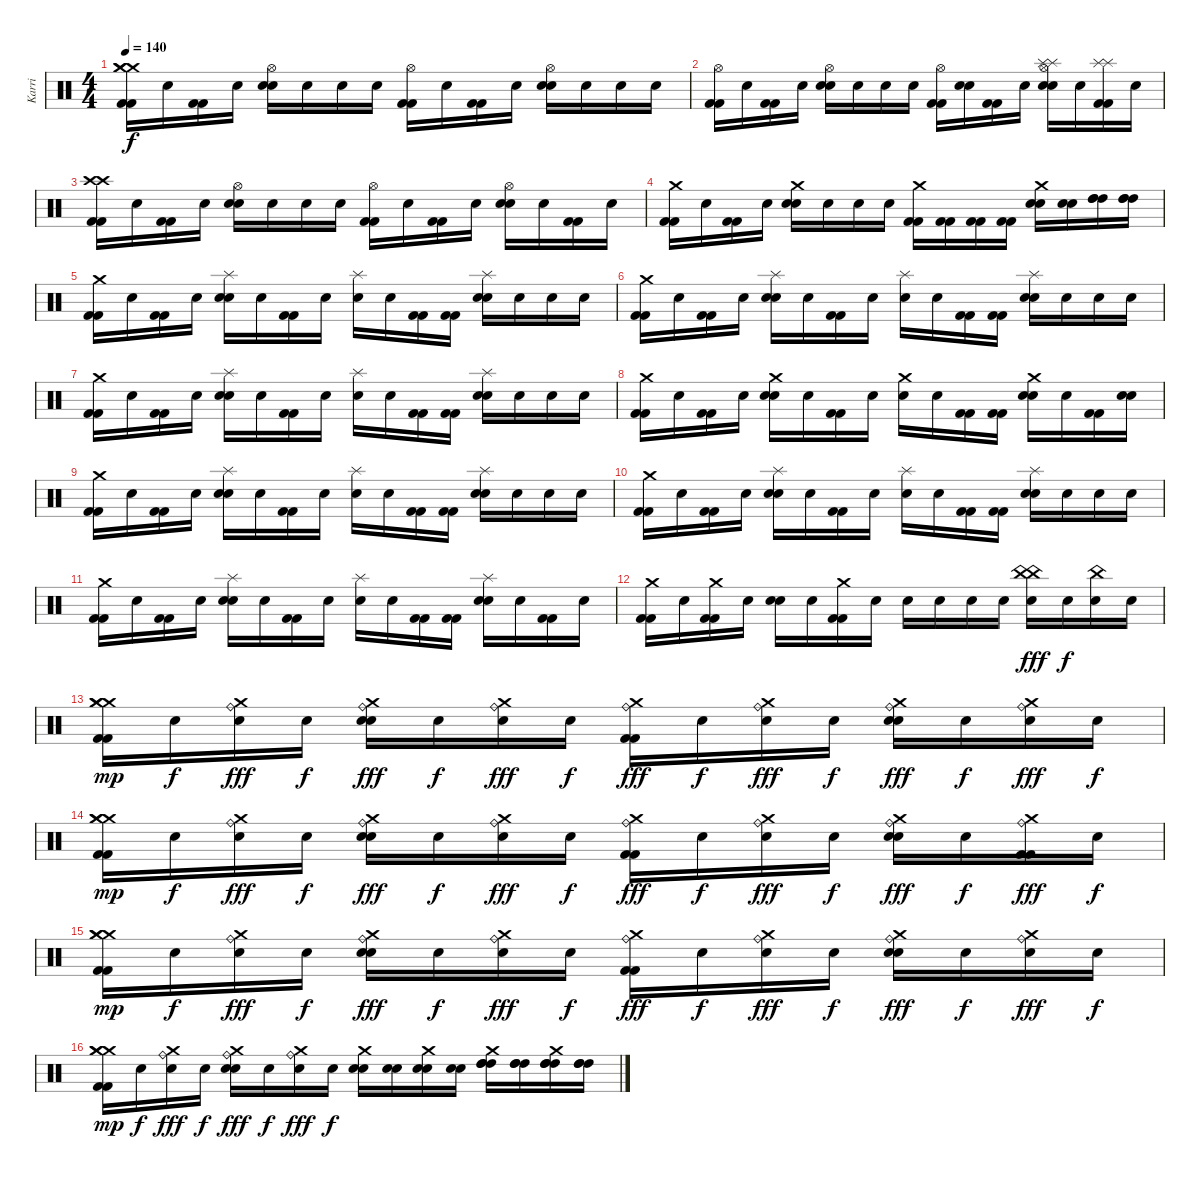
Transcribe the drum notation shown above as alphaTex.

\track ("Karri" "Karri") {instrument percussion}
\staff {score}
\articulation defaults
\ts (4 4)
\tempo 140
\clef neutral
\ks c
("Crash medium (hit)" "Crash medium (hit)" "Crash medium (hit)" "Kick (hit) 2" "Kick (hit) 2").16{dy f} "Snare (hit)"{x}.16 ("Kick (hit) 2"{x} "Kick (hit) 2"{x}).16 "Snare (hit)"{x}.16 ("Hi-Hat (open)" "Snare (hit) 2" "Snare (hit) 2").16 "Snare (hit)"{x}.16 "Snare (hit)"{x}.16 "Snare (hit)"{x}.16 ("Hi-Hat (open)" "Kick (hit) 2" "Kick (hit) 2").16 "Snare (hit)"{x}.16 ("Kick (hit) 2" "Kick (hit) 2").16 "Snare (hit)"{x}.16 ("Hi-Hat (open)" "Snare (hit) 2" "Snare (hit) 2").16 "Snare (hit)"{x}.16 "Snare (hit)"{x}.16 "Snare (hit)"{x}.16 |
("Hi-Hat (open)" "Kick (hit) 2" "Kick (hit) 2").16 "Snare (hit)"{x}.16 ("Kick (hit) 2"{x} "Kick (hit) 2"{x}).16 "Snare (hit)"{x}.16 ("Hi-Hat (open)" "Snare (hit) 2" "Snare (hit) 2").16 "Snare (hit)"{x}.16 "Snare (hit)"{x}.16 "Snare (hit)"{x}.16 ("Hi-Hat (open)" "Kick (hit) 2" "Kick (hit) 2").16 ("Snare (hit)"{x} "Snare (hit)"{x}).16 ("Kick (hit) 2" "Kick (hit) 2").16 "Snare (hit)"{x}.16 ("Hi-Hat (open)" "Splash (hit)"{x} "Splash (hit)"{x} "Snare (hit) 2" "Snare (hit) 2").16 "Snare (hit)"{x}.16 ("Splash (hit)"{x} "Splash (hit)"{x} "Kick (hit) 2" "Kick (hit) 2").16 "Snare (hit)"{x}.16 |
("Crash high (hit)" "Crash high (hit)" "Kick (hit) 2" "Kick (hit) 2").16 "Snare (hit)"{x}.16 ("Kick (hit) 2"{x} "Kick (hit) 2"{x}).16 "Snare (hit)"{x}.16 ("Hi-Hat (open)" "Snare (hit) 2" "Snare (hit) 2").16 "Snare (hit)"{x}.16 "Snare (hit)"{x}.16 "Snare (hit)"{x}.16 ("Hi-Hat (open)" "Kick (hit) 2" "Kick (hit) 2").16 "Snare (hit)"{x}.16 ("Kick (hit) 2" "Kick (hit) 2").16 "Snare (hit)"{x}.16 ("Hi-Hat (open)" "Snare (hit) 2" "Snare (hit) 2").16 "Snare (hit)"{x}.16 ("Kick (hit) 2"{x} "Kick (hit) 2"{x}).16 "Snare (hit)"{x}.16 |
("Crash medium (hit)" "Kick (hit) 2" "Kick (hit) 2").16 "Snare (hit)"{x}.16 ("Kick (hit) 2" "Kick (hit) 2").16 "Snare (hit)"{x}.16 ("Crash medium (hit)" "Snare (hit) 2" "Snare (hit) 2").16 "Snare (hit)"{x}.16 "Snare (hit)"{x}.16 "Snare (hit)"{x}.16 ("Crash medium (hit)" "Kick (hit) 2"{x} "Kick (hit) 2"{x}).16 ("Kick (hit) 2"{x} "Kick (hit) 2"{x}).16 ("Kick (hit) 2" "Kick (hit) 2").16 ("Kick (hit) 2" "Kick (hit) 2").16 ("Crash medium (hit)" "Snare (hit) 2" "Snare (hit) 2").16 ("Snare (hit) 2" "Snare (hit) 2").16 ("High Tom (hit)" "High Tom (hit)" "High Tom (hit)").16 ("High Tom (hit)" "High Tom (hit)" "High Tom (hit)").16 |
("Crash medium (hit)" "Kick (hit) 2" "Kick (hit) 2").16 "Snare (hit)"{x}.16 ("Kick (hit) 2" "Kick (hit) 2").16 "Snare (hit)"{x}.16 ("Splash (hit)" "Snare (hit) 2" "Snare (hit) 2").16 "Snare (hit)"{x}.16 ("Kick (hit) 2" "Kick (hit) 2").16 "Snare (hit)"{x}.16 ("Splash (hit)" "Snare (hit)"{x}).16 "Snare (hit)"{x}.16 ("Kick (hit) 2" "Kick (hit) 2").16 ("Kick (hit) 2" "Kick (hit) 2").16 ("Splash (hit)" "Snare (hit) 2" "Snare (hit) 2").16 "Snare (hit)"{x}.16 "Snare (hit)"{x}.16 "Snare (hit)"{x}.16 |
("Crash medium (hit)" "Kick (hit) 2" "Kick (hit) 2").16 "Snare (hit)"{x}.16 ("Kick (hit) 2" "Kick (hit) 2").16 "Snare (hit)"{x}.16 ("Splash (hit)" "Snare (hit) 2" "Snare (hit) 2").16 "Snare (hit)"{x}.16 ("Kick (hit) 2" "Kick (hit) 2").16 "Snare (hit)"{x}.16 ("Splash (hit)" "Snare (hit)"{x}).16 "Snare (hit)"{x}.16 ("Kick (hit) 2" "Kick (hit) 2").16 ("Kick (hit) 2" "Kick (hit) 2").16 ("Splash (hit)" "Snare (hit) 2" "Snare (hit) 2").16 "Snare (hit)"{x}.16 "Snare (hit)"{x}.16 "Snare (hit)"{x}.16 |
("Crash medium (hit)" "Kick (hit) 2" "Kick (hit) 2").16 "Snare (hit)"{x}.16 ("Kick (hit) 2" "Kick (hit) 2").16 "Snare (hit)"{x}.16 ("Splash (hit)" "Snare (hit) 2" "Snare (hit) 2").16 "Snare (hit)"{x}.16 ("Kick (hit) 2" "Kick (hit) 2").16 "Snare (hit)"{x}.16 ("Splash (hit)" "Snare (hit)"{x}).16 "Snare (hit)"{x}.16 ("Kick (hit) 2" "Kick (hit) 2").16 ("Kick (hit) 2" "Kick (hit) 2").16 ("Splash (hit)" "Snare (hit) 2" "Snare (hit) 2").16 "Snare (hit)"{x}.16 "Snare (hit)"{x}.16 "Snare (hit)"{x}.16 |
("Crash medium (hit)" "Kick (hit) 2" "Kick (hit) 2").16 "Snare (hit)"{x}.16 ("Kick (hit) 2" "Kick (hit) 2").16 "Snare (hit)"{x}.16 ("Crash medium (hit)" "Snare (hit) 2" "Snare (hit) 2").16 "Snare (hit)"{x}.16 ("Kick (hit) 2" "Kick (hit) 2").16 "Snare (hit)"{x}.16 ("Crash medium (hit)" "Snare (hit)"{x}).16 "Snare (hit)"{x}.16 ("Kick (hit) 2" "Kick (hit) 2").16 ("Kick (hit) 2" "Kick (hit) 2").16 ("Crash medium (hit)" "Snare (hit) 2" "Snare (hit) 2").16 "Snare (hit)"{x}.16 ("Kick (hit) 2" "Kick (hit) 2").16 ("Snare (hit) 2"{x} "Snare (hit) 2"{x}).16 |
("Crash medium (hit)" "Kick (hit) 2" "Kick (hit) 2").16 "Snare (hit)"{x}.16 ("Kick (hit) 2" "Kick (hit) 2").16 "Snare (hit)"{x}.16 ("Splash (hit)" "Snare (hit) 2" "Snare (hit) 2").16 "Snare (hit)"{x}.16 ("Kick (hit) 2" "Kick (hit) 2").16 "Snare (hit)"{x}.16 ("Splash (hit)" "Snare (hit)"{x}).16 "Snare (hit)"{x}.16 ("Kick (hit) 2" "Kick (hit) 2").16 ("Kick (hit) 2" "Kick (hit) 2").16 ("Splash (hit)" "Snare (hit) 2" "Snare (hit) 2").16 "Snare (hit)"{x}.16 "Snare (hit)"{x}.16 "Snare (hit)"{x}.16 |
("Crash medium (hit)" "Kick (hit) 2" "Kick (hit) 2").16 "Snare (hit)"{x}.16 ("Kick (hit) 2" "Kick (hit) 2").16 "Snare (hit)"{x}.16 ("Splash (hit)" "Snare (hit) 2" "Snare (hit) 2").16 "Snare (hit)"{x}.16 ("Kick (hit) 2" "Kick (hit) 2").16 "Snare (hit)"{x}.16 ("Splash (hit)" "Snare (hit)"{x}).16 "Snare (hit)"{x}.16 ("Kick (hit) 2" "Kick (hit) 2").16 ("Kick (hit) 2" "Kick (hit) 2").16 ("Splash (hit)" "Snare (hit) 2" "Snare (hit) 2").16 "Snare (hit)"{x}.16 "Snare (hit)"{x}.16 "Snare (hit)"{x}.16 |
("Crash medium (hit)" "Kick (hit) 2" "Kick (hit) 2").16 "Snare (hit)"{x}.16 ("Kick (hit) 2" "Kick (hit) 2").16 "Snare (hit)"{x}.16 ("Splash (hit)" "Snare (hit) 2" "Snare (hit) 2").16 "Snare (hit)"{x}.16 ("Kick (hit) 2" "Kick (hit) 2").16 "Snare (hit)"{x}.16 ("Splash (hit)" "Snare (hit)"{x}).16 "Snare (hit)"{x}.16 ("Kick (hit) 2" "Kick (hit) 2").16 ("Kick (hit) 2" "Kick (hit) 2").16 ("Splash (hit)" "Snare (hit) 2" "Snare (hit) 2").16 "Snare (hit)"{x}.16 ("Kick (hit) 2" "Kick (hit) 2").16 "Snare (hit)"{x}.16 |
("Crash medium (hit)" "Kick (hit) 2" "Kick (hit) 2").16 "Snare (hit)"{x}.16 ("Crash medium (hit)" "Kick (hit) 2" "Kick (hit) 2").16 "Snare (hit)"{x}.16 ("Snare (hit) 2" "Snare (hit) 2").16 "Snare (hit)"{x}.16 ("Crash medium (hit)" "Kick (hit) 2" "Kick (hit) 2").16 "Snare (hit)"{x}.16 "Snare (hit)"{x}.16 "Snare (hit)"{x}.16 "Snare (hit)"{x}.16 "Snare (hit)"{x}.16 ("China (hit)" "China (hit)" "Snare (hit) 2"{x}).16{dy fff} "Snare (hit)"{x}.16{dy f} ("China (hit)"{x} "Snare (hit)"{x}).16 "Snare (hit)"{x}.16 |
("Crash medium (hit)" "Crash medium (hit)" "Crash medium (hit)" "Kick (hit) 2" "Kick (hit) 2").16{dy mp} "Snare (hit)"{x}.16{dy f} ("Ride (bell)" "Crash medium (hit)"{x} "Snare (hit)"{x}).16{dy fff} "Snare (hit)"{x}.16{dy f} ("Ride (bell)" "Crash medium (hit)"{x} "Snare (hit) 2" "Snare (hit) 2").16{dy fff} "Snare (hit)"{x}.16{dy f} ("Ride (bell)" "Crash medium (hit)"{x} "Snare (hit)"{x}).16{dy fff} "Snare (hit)"{x}.16{dy f} ("Ride (bell)" "Crash medium (hit)"{x} "Kick (hit) 2" "Kick (hit) 2").16{dy fff} "Snare (hit)"{x}.16{dy f} ("Ride (bell)" "Crash medium (hit)"{x} "Snare (hit)"{x}).16{dy fff} "Snare (hit)"{x}.16{dy f} ("Ride (bell)" "Crash medium (hit)"{x} "Snare (hit) 2" "Snare (hit) 2").16{dy fff} "Snare (hit)"{x}.16{dy f} ("Ride (bell)" "Crash medium (hit)"{x} "Snare (hit)"{x}).16{dy fff} "Snare (hit)"{x}.16{dy f} |
("Crash medium (hit)" "Crash medium (hit)" "Crash medium (hit)" "Kick (hit) 2" "Kick (hit) 2").16{dy mp} "Snare (hit)"{x}.16{dy f} ("Ride (bell)" "Crash medium (hit)"{x} "Snare (hit)"{x}).16{dy fff} "Snare (hit)"{x}.16{dy f} ("Ride (bell)" "Crash medium (hit)"{x} "Snare (hit) 2" "Snare (hit) 2").16{dy fff} "Snare (hit)"{x}.16{dy f} ("Ride (bell)" "Crash medium (hit)"{x} "Snare (hit)"{x}).16{dy fff} "Snare (hit)"{x}.16{dy f} ("Ride (bell)" "Crash medium (hit)"{x} "Kick (hit) 2" "Kick (hit) 2").16{dy fff} "Snare (hit)"{x}.16{dy f} ("Ride (bell)" "Crash medium (hit)"{x} "Snare (hit)"{x}).16{dy fff} "Snare (hit)"{x}.16{dy f} ("Ride (bell)" "Crash medium (hit)"{x} "Snare (hit) 2" "Snare (hit) 2").16{dy fff} "Snare (hit)"{x}.16{dy f} ("Ride (bell)" "Crash medium (hit)"{x} "Kick (hit) 2" "Kick (hit) 2").16{dy fff} "Snare (hit)"{x}.16{dy f} |
("Crash medium (hit)" "Crash medium (hit)" "Crash medium (hit)" "Kick (hit) 2" "Kick (hit) 2").16{dy mp} "Snare (hit)"{x}.16{dy f} ("Ride (bell)" "Crash medium (hit)"{x} "Snare (hit)"{x}).16{dy fff} "Snare (hit)"{x}.16{dy f} ("Ride (bell)" "Crash medium (hit)"{x} "Snare (hit) 2" "Snare (hit) 2").16{dy fff} "Snare (hit)"{x}.16{dy f} ("Ride (bell)" "Crash medium (hit)"{x} "Snare (hit)"{x}).16{dy fff} "Snare (hit)"{x}.16{dy f} ("Ride (bell)" "Crash medium (hit)"{x} "Kick (hit) 2" "Kick (hit) 2").16{dy fff} "Snare (hit)"{x}.16{dy f} ("Ride (bell)" "Crash medium (hit)"{x} "Snare (hit)"{x}).16{dy fff} "Snare (hit)"{x}.16{dy f} ("Ride (bell)" "Crash medium (hit)"{x} "Snare (hit) 2" "Snare (hit) 2").16{dy fff} "Snare (hit)"{x}.16{dy f} ("Ride (bell)" "Crash medium (hit)"{x} "Snare (hit)"{x}).16{dy fff} "Snare (hit)"{x}.16{dy f} |
("Crash medium (hit)" "Crash medium (hit)" "Crash medium (hit)" "Kick (hit) 2" "Kick (hit) 2").16{dy mp} "Snare (hit)"{x}.16{dy f} ("Ride (bell)" "Crash medium (hit)"{x} "Snare (hit)"{x}).16{dy fff} "Snare (hit)"{x}.16{dy f} ("Ride (bell)" "Crash medium (hit)"{x} "Snare (hit) 2" "Snare (hit) 2").16{dy fff} "Snare (hit)"{x}.16{dy f} ("Ride (bell)" "Crash medium (hit)"{x} "Snare (hit)"{x}).16{dy fff} "Snare (hit)"{x}.16{dy f} ("Crash medium (hit)"{x} "Snare (hit) 2" "Snare (hit) 2").16 ("Snare (hit) 2" "Snare (hit) 2").16 ("Crash medium (hit)"{x} "Snare (hit) 2" "Snare (hit) 2").16 ("Snare (hit) 2" "Snare (hit) 2").16 ("Crash medium (hit)"{x} "High Tom (hit)" "High Tom (hit)" "High Tom (hit)").16 ("High Tom (hit)" "High Tom (hit)" "High Tom (hit)").16 ("Crash medium (hit)"{x} "High Tom (hit)" "High Tom (hit)" "High Tom (hit)").16 ("High Tom (hit)" "High Tom (hit)" "High Tom (hit)").16
